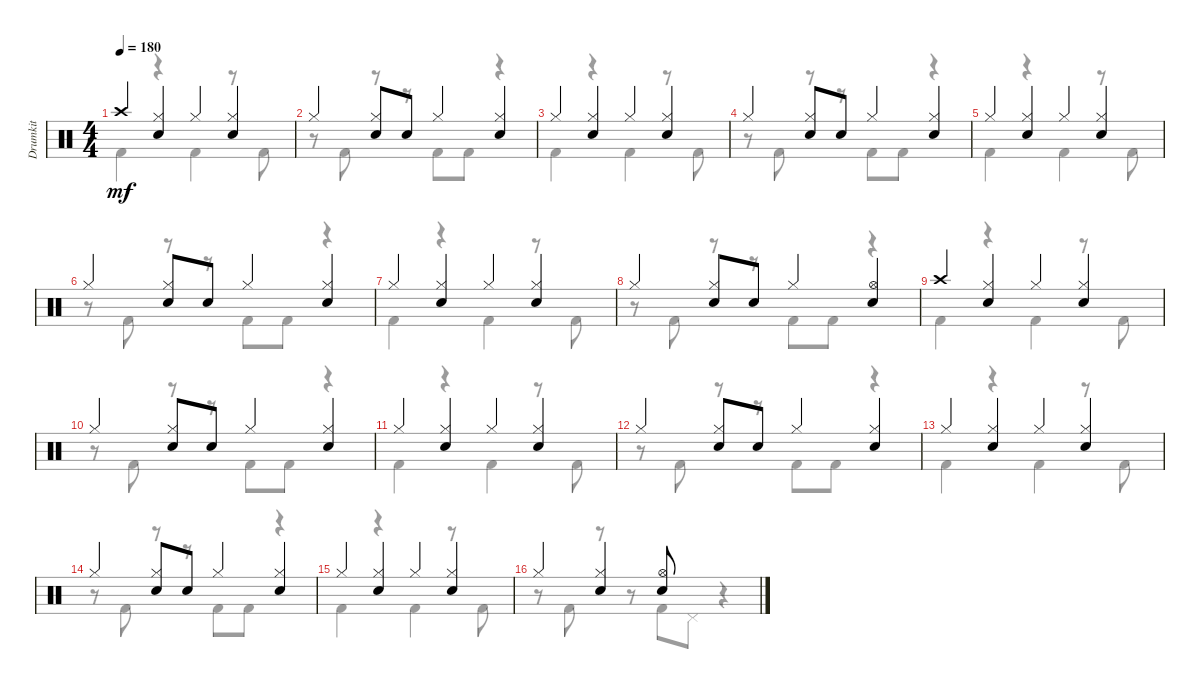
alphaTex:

\track ("Drumkit" "Drumkit") {instrument percussion}
\staff {score}
\articulation defaults
\voice
\ts (4 4)
\tempo 180
\clef neutral
\ks c "Crash high (hit)".4{dy mf}
("Hi-Hat (closed)" "Snare (hit) 2").4 "Hi-Hat (closed)".4 ("Hi-Hat (closed)" "Snare (hit) 2").4 |
"Hi-Hat (closed)".4 ("Hi-Hat (closed)" "Snare (hit) 2").8 "Snare (hit) 2".8 "Hi-Hat (closed)".4 ("Hi-Hat (closed)" "Snare (hit) 2").4 |
"Hi-Hat (closed)".4 ("Hi-Hat (closed)" "Snare (hit) 2").4 "Hi-Hat (closed)".4 ("Hi-Hat (closed)" "Snare (hit) 2").4 |
"Hi-Hat (closed)".4 ("Hi-Hat (closed)" "Snare (hit) 2").8 "Snare (hit) 2".8 "Hi-Hat (closed)".4 ("Hi-Hat (closed)" "Snare (hit) 2").4 |
"Hi-Hat (closed)".4 ("Hi-Hat (closed)" "Snare (hit) 2").4 "Hi-Hat (closed)".4 ("Hi-Hat (closed)" "Snare (hit) 2").4 |
"Hi-Hat (closed)".4 ("Hi-Hat (closed)" "Snare (hit) 2").8 "Snare (hit) 2".8 "Hi-Hat (closed)".4 ("Hi-Hat (closed)" "Snare (hit) 2").4 |
"Hi-Hat (closed)".4 ("Hi-Hat (closed)" "Snare (hit) 2").4 "Hi-Hat (closed)".4 ("Hi-Hat (closed)" "Snare (hit) 2").4 |
"Hi-Hat (closed)".4 ("Hi-Hat (closed)" "Snare (hit) 2").8 "Snare (hit) 2".8 "Hi-Hat (closed)".4 ("Hi-Hat (open)" "Snare (hit) 2").4 |
"Crash high (hit)".4 ("Hi-Hat (closed)" "Snare (hit) 2").4 "Hi-Hat (closed)".4 ("Hi-Hat (closed)" "Snare (hit) 2").4 |
"Hi-Hat (closed)".4 ("Hi-Hat (closed)" "Snare (hit) 2").8 "Snare (hit) 2".8 "Hi-Hat (closed)".4 ("Hi-Hat (closed)" "Snare (hit) 2").4 |
"Hi-Hat (closed)".4 ("Hi-Hat (closed)" "Snare (hit) 2").4 "Hi-Hat (closed)".4 ("Hi-Hat (closed)" "Snare (hit) 2").4 |
"Hi-Hat (closed)".4 ("Hi-Hat (closed)" "Snare (hit) 2").8 "Snare (hit) 2".8 "Hi-Hat (closed)".4 ("Hi-Hat (closed)" "Snare (hit) 2").4 |
"Hi-Hat (closed)".4 ("Hi-Hat (closed)" "Snare (hit) 2").4 "Hi-Hat (closed)".4 ("Hi-Hat (closed)" "Snare (hit) 2").4 |
"Hi-Hat (closed)".4 ("Hi-Hat (closed)" "Snare (hit) 2").8 "Snare (hit) 2".8 "Hi-Hat (closed)".4 ("Hi-Hat (closed)" "Snare (hit) 2").4 |
"Hi-Hat (closed)".4 ("Hi-Hat (closed)" "Snare (hit) 2").4 "Hi-Hat (closed)".4 ("Hi-Hat (closed)" "Snare (hit) 2").4 |
"Hi-Hat (closed)".4 ("Hi-Hat (closed)" "Snare (hit) 2").4 ("Hi-Hat (open)" "Snare (hit) 2").8
\voice
\clef neutral
\ottava regular
\simile none
\ks c "Kick (hit) 2".4{dy mf}
r.4 "Kick (hit) 2".4 r.8 "Kick (hit) 2".8 |
r.8 "Kick (hit) 2".8 r.8 r.8 "Kick (hit) 2".8 "Kick (hit) 2".8 r.4 |
"Kick (hit) 2".4 r.4 "Kick (hit) 2".4 r.8 "Kick (hit) 2".8 |
r.8 "Kick (hit) 2".8 r.8 r.8 "Kick (hit) 2".8 "Kick (hit) 2".8 r.4 |
"Kick (hit) 2".4 r.4 "Kick (hit) 2".4 r.8 "Kick (hit) 2".8 |
r.8 "Kick (hit) 2".8 r.8 r.8 "Kick (hit) 2".8 "Kick (hit) 2".8 r.4 |
"Kick (hit) 2".4 r.4 "Kick (hit) 2".4 r.8 "Kick (hit) 2".8 |
r.8 "Kick (hit) 2".8 r.8 r.8 "Kick (hit) 2".8 "Kick (hit) 2".8 r.4 |
"Kick (hit) 2".4 r.4 "Kick (hit) 2".4 r.8 "Kick (hit) 2".8 |
r.8 "Kick (hit) 2".8 r.8 r.8 "Kick (hit) 2".8 "Kick (hit) 2".8 r.4 |
"Kick (hit) 2".4 r.4 "Kick (hit) 2".4 r.8 "Kick (hit) 2".8 |
r.8 "Kick (hit) 2".8 r.8 r.8 "Kick (hit) 2".8 "Kick (hit) 2".8 r.4 |
"Kick (hit) 2".4 r.4 "Kick (hit) 2".4 r.8 "Kick (hit) 2".8 |
r.8 "Kick (hit) 2".8 r.8 r.8 "Kick (hit) 2".8 "Kick (hit) 2".8 r.4 |
"Kick (hit) 2".4 r.4 "Kick (hit) 2".4 r.8 "Kick (hit) 2".8 |
r.8 "Kick (hit) 2".8 r.8 r.8 "Kick (hit) 2".8 "Pedal Hi-Hat (hit)".8 r.4
